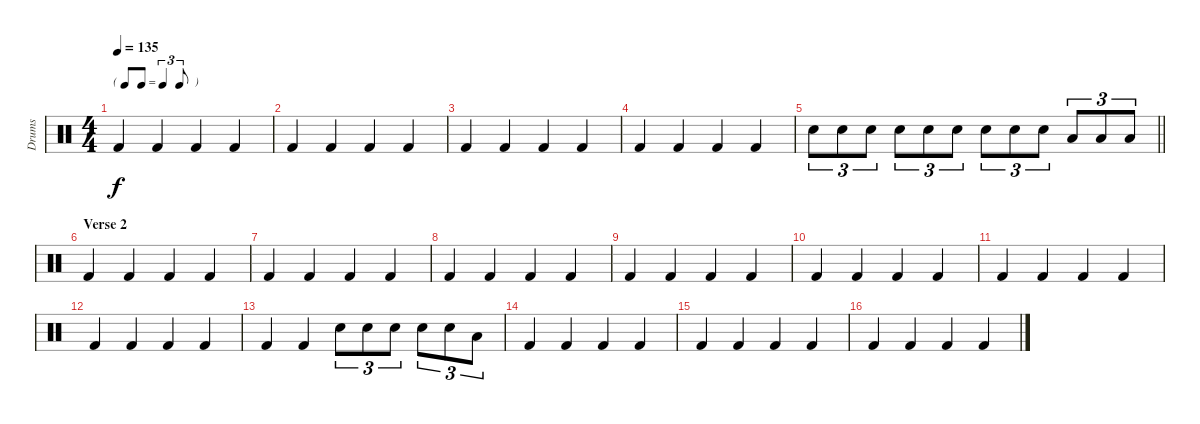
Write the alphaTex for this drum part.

\track ("Drums" "Drums") {instrument percussion}
\staff {score}
\articulation defaults
\ts (4 4)
\tf triplet8th
\tempo 135
\clef neutral
\ks c "Kick (hit) 2".4{dy f} "Kick (hit) 2".4 "Kick (hit) 2".4 "Kick (hit) 2".4
|
"Kick (hit) 2".4 "Kick (hit) 2".4 "Kick (hit) 2".4 "Kick (hit) 2".4 |
"Kick (hit) 2".4 "Kick (hit) 2".4 "Kick (hit) 2".4 "Kick (hit) 2".4 |
"Kick (hit) 2".4 "Kick (hit) 2".4 "Kick (hit) 2".4 "Kick (hit) 2".4 |
\barLineRight lightlight "Snare (hit) 2".8{tu (3 2)} "Snare (hit) 2".8{tu (3 2)} "Snare (hit) 2".8{tu (3 2)} "Snare (hit) 2".8{tu (3 2)} "Snare (hit) 2".8{tu (3 2)} "Snare (hit) 2".8{tu (3 2)} "Snare (hit) 2".8{tu (3 2)} "Snare (hit) 2".8{tu (3 2)} "Snare (hit) 2".8{tu (3 2)} "Low Tom (hit)".8{tu (3 2)} "Low Tom (hit)".8{tu (3 2)} "Low Tom (hit)".8{tu (3 2)}
|
\section ("" "Verse 2")
"Kick (hit) 2".4 "Kick (hit) 2".4 "Kick (hit) 2".4 "Kick (hit) 2".4 |
"Kick (hit) 2".4 "Kick (hit) 2".4 "Kick (hit) 2".4 "Kick (hit) 2".4 |
"Kick (hit) 2".4 "Kick (hit) 2".4 "Kick (hit) 2".4 "Kick (hit) 2".4 |
"Kick (hit) 2".4 "Kick (hit) 2".4 "Kick (hit) 2".4 "Kick (hit) 2".4 |
"Kick (hit) 2".4 "Kick (hit) 2".4 "Kick (hit) 2".4 "Kick (hit) 2".4 |
"Kick (hit) 2".4 "Kick (hit) 2".4 "Kick (hit) 2".4 "Kick (hit) 2".4 |
"Kick (hit) 2".4 "Kick (hit) 2".4 "Kick (hit) 2".4 "Kick (hit) 2".4 |
"Kick (hit) 2".4 "Kick (hit) 2".4 "Snare (hit) 2".8{tu (3 2)} "Snare (hit) 2".8{tu (3 2)} "Snare (hit) 2".8{tu (3 2)} "Snare (hit) 2".8{tu (3 2)} "Snare (hit) 2".8{tu (3 2)} "Low Tom (hit)".8{tu (3 2)} |
"Kick (hit) 2".4 "Kick (hit) 2".4 "Kick (hit) 2".4 "Kick (hit) 2".4 |
"Kick (hit) 2".4 "Kick (hit) 2".4 "Kick (hit) 2".4 "Kick (hit) 2".4 |
"Kick (hit) 2".4 "Kick (hit) 2".4 "Kick (hit) 2".4 "Kick (hit) 2".4
